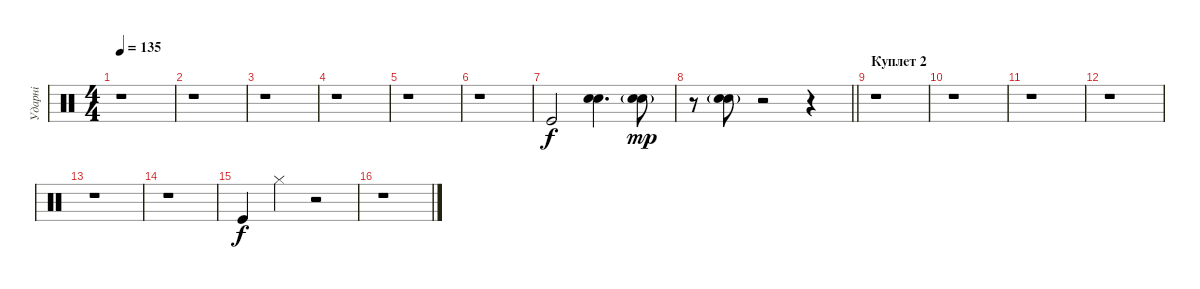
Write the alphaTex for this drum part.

\track ("Ударні" "Ударні") {instrument percussion}
\staff {score}
\articulation defaults
\ts (4 4)
\tempo 135
\clef neutral
\ks c
r.1{dy f} |
r.1 |
r.1 |
r.1 |
r.1 |
r.1 |
"Kick (hit)".2 ("Snare (hit) 2" "Hand Clap (hit)").4{d} ("Snare (hit) 2"{g} "Hand Clap (hit)"{g}).8{dy mp} |
\barLineRight lightlight
r.8 ("Snare (hit) 2"{g} "Hand Clap (hit)"{g}).8 r.2 r.4 |
\section ("" "Куплет 2")
r.1 |
r.1 |
r.1 |
r.1 |
r.1 |
r.1 |
"Kick (hit)".4{dy f} "Hi-Hat (closed)".4 r.2 |
r.1
